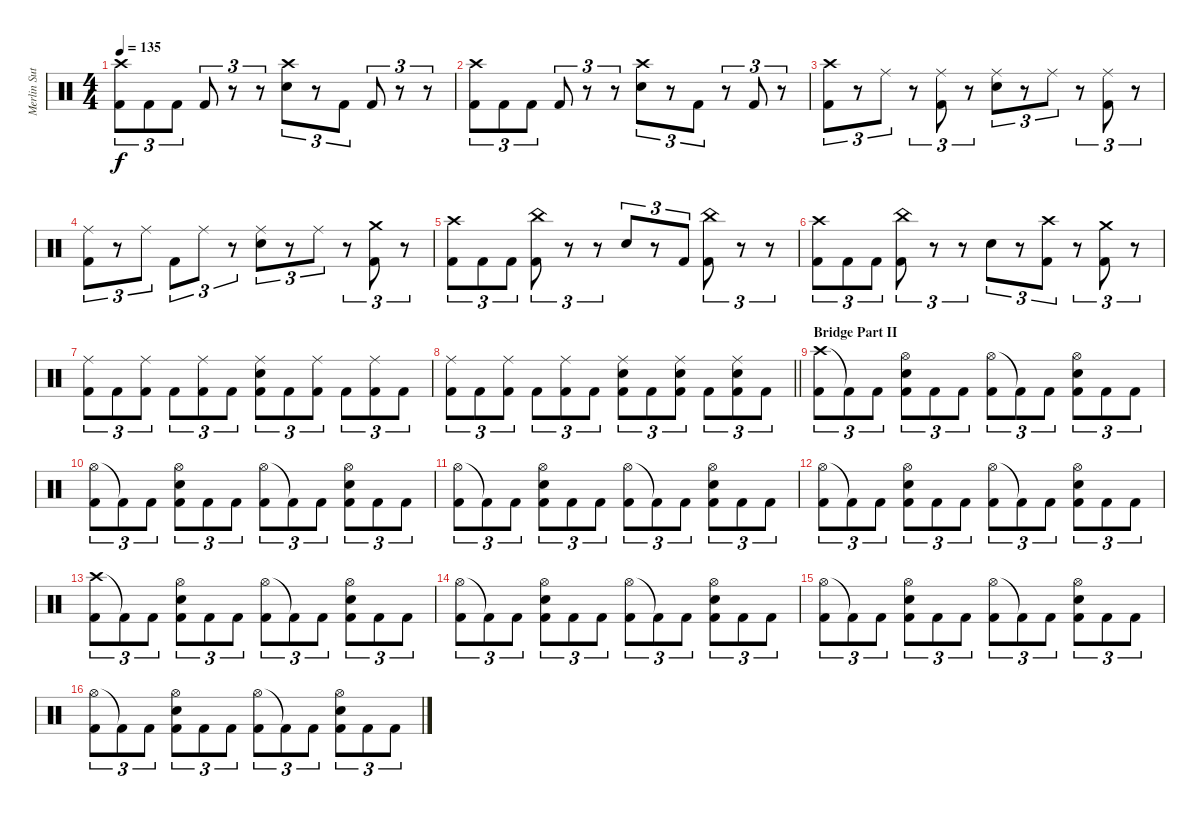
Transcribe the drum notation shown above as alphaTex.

\track ("Merlin Sutter" "Merlin Sut") {instrument percussion}
\staff {score}
\articulation defaults
\ts (4 4)
\tempo 135
\clef neutral
\ks c
("Crash high (hit)" "Kick (hit) 2").8{tu (3 2) dy f} "Kick (hit) 2".8{tu (3 2)} "Kick (hit) 2".8{tu (3 2)} "Kick (hit) 2".8{tu (3 2)} r.8{tu (3 2)} r.8{tu (3 2)} ("Crash high (hit)" "Snare (hit) 2").8{tu (3 2)} r.8{tu (3 2)} "Kick (hit) 2".8{tu (3 2)} "Kick (hit) 2".8{tu (3 2)} r.8{tu (3 2)} r.8{tu (3 2)} |
("Crash high (hit)" "Kick (hit) 2").8{tu (3 2)} "Kick (hit) 2".8{tu (3 2)} "Kick (hit) 2".8{tu (3 2)} "Kick (hit) 2".8{tu (3 2)} r.8{tu (3 2)} r.8{tu (3 2)} ("Crash high (hit)" "Snare (hit) 2").8{tu (3 2)} r.8{tu (3 2)} "Kick (hit) 2".8{tu (3 2)} r.8{tu (3 2)} "Kick (hit) 2".8{tu (3 2)} r.8{tu (3 2)} |
("Crash high (hit)" "Kick (hit) 2").8{tu (3 2)} r.8{tu (3 2)} "Ride (middle)".8{tu (3 2)} r.8{tu (3 2)} ("Ride (middle)" "Kick (hit) 2").8{tu (3 2)} r.8{tu (3 2)} ("Ride (middle)" "Snare (hit) 2").8{tu (3 2)} r.8{tu (3 2)} "Ride (middle)".8{tu (3 2)} r.8{tu (3 2)} ("Ride (middle)" "Kick (hit) 2").8{tu (3 2)} r.8{tu (3 2)} |
("Ride (middle)" "Kick (hit) 2").8{tu (3 2)} r.8{tu (3 2)} "Ride (middle)".8{tu (3 2)} "Kick (hit) 2".8{tu (3 2)} "Ride (middle)".8{tu (3 2)} r.8{tu (3 2)} ("Ride (middle)" "Snare (hit) 2").8{tu (3 2)} r.8{tu (3 2)} "Ride (middle)".8{tu (3 2)} r.8{tu (3 2)} ("Crash medium (hit)" "Kick (hit) 2").8{tu (3 2)} r.8{tu (3 2)} |
("Crash high (hit)" "Kick (hit) 2").8{tu (3 2)} "Kick (hit) 2".8{tu (3 2)} "Kick (hit) 2".8{tu (3 2)} ("China (hit)" "Kick (hit) 2").8{tu (3 2)} r.8{tu (3 2)} r.8{tu (3 2)} "Snare (hit) 2".8{tu (3 2)} r.8{tu (3 2)} "Kick (hit) 2".8{tu (3 2)} ("China (hit)" "Kick (hit) 2").8{tu (3 2)} r.8{tu (3 2)} r.8{tu (3 2)} |
("Crash high (hit)" "Kick (hit) 2").8{tu (3 2)} "Kick (hit) 2".8{tu (3 2)} "Kick (hit) 2".8{tu (3 2)} ("China (hit)" "Kick (hit) 2").8{tu (3 2)} r.8{tu (3 2)} r.8{tu (3 2)} "Snare (hit) 2".8{tu (3 2)} r.8{tu (3 2)} ("Crash high (hit)" "Kick (hit) 2").8{tu (3 2)} r.8{tu (3 2)} ("Crash medium (hit)" "Kick (hit) 2").8{tu (3 2)} r.8{tu (3 2)} |
("Ride (middle)" "Kick (hit) 2").8{tu (3 2)} "Kick (hit) 2".8{tu (3 2)} ("Ride (middle)" "Kick (hit) 2").8{tu (3 2)} "Kick (hit) 2".8{tu (3 2)} ("Ride (middle)" "Kick (hit) 2").8{tu (3 2)} "Kick (hit) 2".8{tu (3 2)} ("Ride (middle)" "Snare (hit) 2" "Kick (hit) 2").8{tu (3 2)} "Kick (hit) 2".8{tu (3 2)} ("Ride (middle)" "Kick (hit) 2").8{tu (3 2)} "Kick (hit) 2".8{tu (3 2)} ("Ride (middle)" "Kick (hit) 2").8{tu (3 2)} "Kick (hit) 2".8{tu (3 2)} |
\barLineRight lightlight
("Ride (middle)" "Kick (hit) 2").8{tu (3 2)} "Kick (hit) 2".8{tu (3 2)} ("Ride (middle)" "Kick (hit) 2").8{tu (3 2)} "Kick (hit) 2".8{tu (3 2)} ("Ride (middle)" "Kick (hit) 2").8{tu (3 2)} "Kick (hit) 2".8{tu (3 2)} ("Ride (middle)" "Snare (hit) 2" "Kick (hit) 2").8{tu (3 2)} "Kick (hit) 2".8{tu (3 2)} ("Ride (middle)" "Snare (hit) 2" "Kick (hit) 2").8{tu (3 2)} "Kick (hit) 2".8{tu (3 2)} ("Ride (middle)" "Snare (hit) 2" "Kick (hit) 2").8{tu (3 2)} "Kick (hit) 2".8{tu (3 2)} |
\section ("" "Bridge Part II")
("Crash high (hit)" "Kick (hit) 2").8{tu (3 2)} "Kick (hit) 2"{t}.8{tu (3 2)} "Kick (hit) 2".8{tu (3 2)} ("Hi-Hat (open)" "Snare (hit) 2" "Kick (hit) 2").8{tu (3 2)} "Kick (hit) 2".8{tu (3 2)} "Kick (hit) 2".8{tu (3 2)} ("Hi-Hat (open)" "Kick (hit) 2").8{tu (3 2)} "Kick (hit) 2"{t}.8{tu (3 2)} "Kick (hit) 2".8{tu (3 2)} ("Hi-Hat (open)" "Snare (hit) 2" "Kick (hit) 2").8{tu (3 2)} "Kick (hit) 2".8{tu (3 2)} "Kick (hit) 2".8{tu (3 2)} |
("Hi-Hat (open)" "Kick (hit) 2").8{tu (3 2)} "Kick (hit) 2"{t}.8{tu (3 2)} "Kick (hit) 2".8{tu (3 2)} ("Hi-Hat (open)" "Snare (hit) 2" "Kick (hit) 2").8{tu (3 2)} "Kick (hit) 2".8{tu (3 2)} "Kick (hit) 2".8{tu (3 2)} ("Hi-Hat (open)" "Kick (hit) 2").8{tu (3 2)} "Kick (hit) 2"{t}.8{tu (3 2)} "Kick (hit) 2".8{tu (3 2)} ("Hi-Hat (open)" "Snare (hit) 2" "Kick (hit) 2").8{tu (3 2)} "Kick (hit) 2".8{tu (3 2)} "Kick (hit) 2".8{tu (3 2)} |
("Hi-Hat (open)" "Kick (hit) 2").8{tu (3 2)} "Kick (hit) 2"{t}.8{tu (3 2)} "Kick (hit) 2".8{tu (3 2)} ("Hi-Hat (open)" "Snare (hit) 2" "Kick (hit) 2").8{tu (3 2)} "Kick (hit) 2".8{tu (3 2)} "Kick (hit) 2".8{tu (3 2)} ("Hi-Hat (open)" "Kick (hit) 2").8{tu (3 2)} "Kick (hit) 2"{t}.8{tu (3 2)} "Kick (hit) 2".8{tu (3 2)} ("Hi-Hat (open)" "Snare (hit) 2" "Kick (hit) 2").8{tu (3 2)} "Kick (hit) 2".8{tu (3 2)} "Kick (hit) 2".8{tu (3 2)} |
("Hi-Hat (open)" "Kick (hit) 2").8{tu (3 2)} "Kick (hit) 2"{t}.8{tu (3 2)} "Kick (hit) 2".8{tu (3 2)} ("Hi-Hat (open)" "Snare (hit) 2" "Kick (hit) 2").8{tu (3 2)} "Kick (hit) 2".8{tu (3 2)} "Kick (hit) 2".8{tu (3 2)} ("Hi-Hat (open)" "Kick (hit) 2").8{tu (3 2)} "Kick (hit) 2"{t}.8{tu (3 2)} "Kick (hit) 2".8{tu (3 2)} ("Hi-Hat (open)" "Snare (hit) 2" "Kick (hit) 2").8{tu (3 2)} "Kick (hit) 2".8{tu (3 2)} "Kick (hit) 2".8{tu (3 2)} |
("Crash high (hit)" "Kick (hit) 2").8{tu (3 2)} "Kick (hit) 2"{t}.8{tu (3 2)} "Kick (hit) 2".8{tu (3 2)} ("Hi-Hat (open)" "Snare (hit) 2" "Kick (hit) 2").8{tu (3 2)} "Kick (hit) 2".8{tu (3 2)} "Kick (hit) 2".8{tu (3 2)} ("Hi-Hat (open)" "Kick (hit) 2").8{tu (3 2)} "Kick (hit) 2"{t}.8{tu (3 2)} "Kick (hit) 2".8{tu (3 2)} ("Hi-Hat (open)" "Snare (hit) 2" "Kick (hit) 2").8{tu (3 2)} "Kick (hit) 2".8{tu (3 2)} "Kick (hit) 2".8{tu (3 2)} |
("Hi-Hat (open)" "Kick (hit) 2").8{tu (3 2)} "Kick (hit) 2"{t}.8{tu (3 2)} "Kick (hit) 2".8{tu (3 2)} ("Hi-Hat (open)" "Snare (hit) 2" "Kick (hit) 2").8{tu (3 2)} "Kick (hit) 2".8{tu (3 2)} "Kick (hit) 2".8{tu (3 2)} ("Hi-Hat (open)" "Kick (hit) 2").8{tu (3 2)} "Kick (hit) 2"{t}.8{tu (3 2)} "Kick (hit) 2".8{tu (3 2)} ("Hi-Hat (open)" "Snare (hit) 2" "Kick (hit) 2").8{tu (3 2)} "Kick (hit) 2".8{tu (3 2)} "Kick (hit) 2".8{tu (3 2)} |
("Hi-Hat (open)" "Kick (hit) 2").8{tu (3 2)} "Kick (hit) 2"{t}.8{tu (3 2)} "Kick (hit) 2".8{tu (3 2)} ("Hi-Hat (open)" "Snare (hit) 2" "Kick (hit) 2").8{tu (3 2)} "Kick (hit) 2".8{tu (3 2)} "Kick (hit) 2".8{tu (3 2)} ("Hi-Hat (open)" "Kick (hit) 2").8{tu (3 2)} "Kick (hit) 2"{t}.8{tu (3 2)} "Kick (hit) 2".8{tu (3 2)} ("Hi-Hat (open)" "Snare (hit) 2" "Kick (hit) 2").8{tu (3 2)} "Kick (hit) 2".8{tu (3 2)} "Kick (hit) 2".8{tu (3 2)} |
("Hi-Hat (open)" "Kick (hit) 2").8{tu (3 2)} "Kick (hit) 2"{t}.8{tu (3 2)} "Kick (hit) 2".8{tu (3 2)} ("Hi-Hat (open)" "Snare (hit) 2" "Kick (hit) 2").8{tu (3 2)} "Kick (hit) 2".8{tu (3 2)} "Kick (hit) 2".8{tu (3 2)} ("Hi-Hat (open)" "Kick (hit) 2").8{tu (3 2)} "Kick (hit) 2"{t}.8{tu (3 2)} "Kick (hit) 2".8{tu (3 2)} ("Hi-Hat (open)" "Snare (hit) 2" "Kick (hit) 2").8{tu (3 2)} "Kick (hit) 2".8{tu (3 2)} "Kick (hit) 2".8{tu (3 2)}
